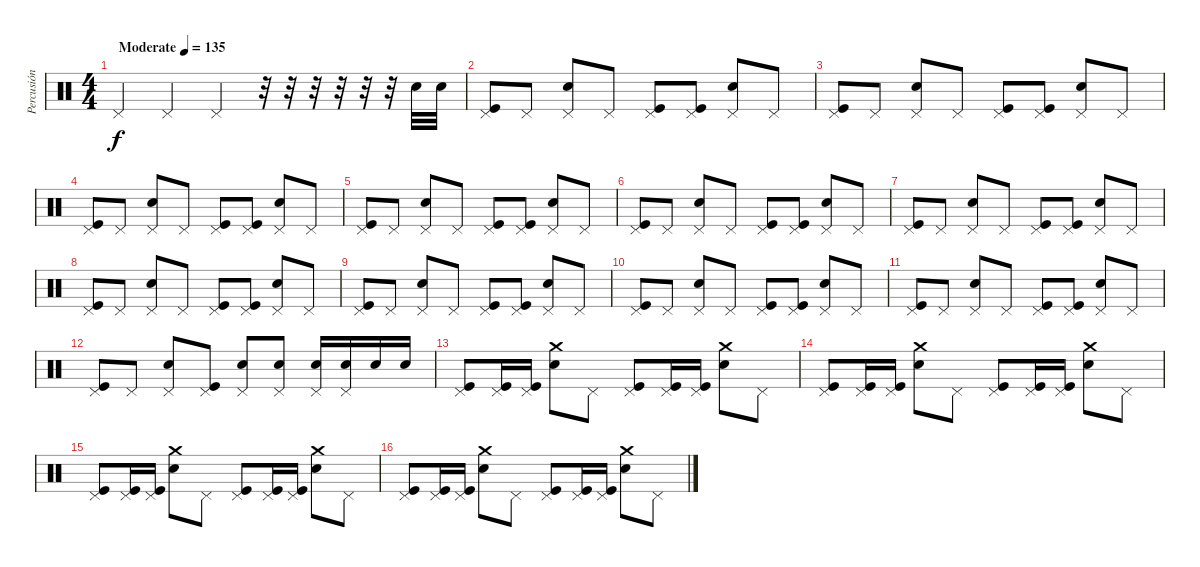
\track ("Percusión" "Percusión") {instrument percussion}
\staff {score}
\articulation defaults
\ts (4 4)
\tempo (135 "Moderate")
\clef neutral
\ks c "Pedal Hi-Hat (hit)".4{dy f} "Pedal Hi-Hat (hit)".4 "Pedal Hi-Hat (hit)".4
r.32 r.32 r.32 r.32 r.32 r.32 "Electric Snare (hit)".32 "Electric Snare (hit)".32 |
("Pedal Hi-Hat (hit)" "Kick (hit)").8 "Pedal Hi-Hat (hit)".8 ("Pedal Hi-Hat (hit)" "Electric Snare (hit)").8 "Pedal Hi-Hat (hit)".8 ("Pedal Hi-Hat (hit)" "Kick (hit)").8 ("Pedal Hi-Hat (hit)" "Kick (hit)").8 ("Pedal Hi-Hat (hit)" "Electric Snare (hit)").8 "Pedal Hi-Hat (hit)".8 |
("Pedal Hi-Hat (hit)" "Kick (hit)").8 "Pedal Hi-Hat (hit)".8 ("Pedal Hi-Hat (hit)" "Electric Snare (hit)").8 "Pedal Hi-Hat (hit)".8 ("Pedal Hi-Hat (hit)" "Kick (hit)").8 ("Pedal Hi-Hat (hit)" "Kick (hit)").8 ("Pedal Hi-Hat (hit)" "Electric Snare (hit)").8 "Pedal Hi-Hat (hit)".8 |
("Pedal Hi-Hat (hit)" "Kick (hit)").8 "Pedal Hi-Hat (hit)".8 ("Pedal Hi-Hat (hit)" "Electric Snare (hit)").8 "Pedal Hi-Hat (hit)".8 ("Pedal Hi-Hat (hit)" "Kick (hit)").8 ("Pedal Hi-Hat (hit)" "Kick (hit)").8 ("Pedal Hi-Hat (hit)" "Electric Snare (hit)").8 "Pedal Hi-Hat (hit)".8 |
("Pedal Hi-Hat (hit)" "Kick (hit)").8 "Pedal Hi-Hat (hit)".8 ("Pedal Hi-Hat (hit)" "Electric Snare (hit)").8 "Pedal Hi-Hat (hit)".8 ("Pedal Hi-Hat (hit)" "Kick (hit)").8 ("Pedal Hi-Hat (hit)" "Kick (hit)").8 ("Pedal Hi-Hat (hit)" "Electric Snare (hit)").8 "Pedal Hi-Hat (hit)".8 |
("Pedal Hi-Hat (hit)" "Kick (hit)").8 "Pedal Hi-Hat (hit)".8 ("Pedal Hi-Hat (hit)" "Electric Snare (hit)").8 "Pedal Hi-Hat (hit)".8 ("Pedal Hi-Hat (hit)" "Kick (hit)").8 ("Pedal Hi-Hat (hit)" "Kick (hit)").8 ("Pedal Hi-Hat (hit)" "Electric Snare (hit)").8 "Pedal Hi-Hat (hit)".8 |
("Pedal Hi-Hat (hit)" "Kick (hit)").8 "Pedal Hi-Hat (hit)".8 ("Pedal Hi-Hat (hit)" "Electric Snare (hit)").8 "Pedal Hi-Hat (hit)".8 ("Pedal Hi-Hat (hit)" "Kick (hit)").8 ("Pedal Hi-Hat (hit)" "Kick (hit)").8 ("Pedal Hi-Hat (hit)" "Electric Snare (hit)").8 "Pedal Hi-Hat (hit)".8 |
("Pedal Hi-Hat (hit)" "Kick (hit)").8 "Pedal Hi-Hat (hit)".8 ("Pedal Hi-Hat (hit)" "Electric Snare (hit)").8 "Pedal Hi-Hat (hit)".8 ("Pedal Hi-Hat (hit)" "Kick (hit)").8 ("Pedal Hi-Hat (hit)" "Kick (hit)").8 ("Pedal Hi-Hat (hit)" "Electric Snare (hit)").8 "Pedal Hi-Hat (hit)".8 |
("Pedal Hi-Hat (hit)" "Kick (hit)").8 "Pedal Hi-Hat (hit)".8 ("Pedal Hi-Hat (hit)" "Electric Snare (hit)").8 "Pedal Hi-Hat (hit)".8 ("Pedal Hi-Hat (hit)" "Kick (hit)").8 ("Pedal Hi-Hat (hit)" "Kick (hit)").8 ("Pedal Hi-Hat (hit)" "Electric Snare (hit)").8 "Pedal Hi-Hat (hit)".8 |
("Pedal Hi-Hat (hit)" "Kick (hit)").8 "Pedal Hi-Hat (hit)".8 ("Pedal Hi-Hat (hit)" "Electric Snare (hit)").8 "Pedal Hi-Hat (hit)".8 ("Pedal Hi-Hat (hit)" "Kick (hit)").8 ("Pedal Hi-Hat (hit)" "Kick (hit)").8 ("Pedal Hi-Hat (hit)" "Electric Snare (hit)").8 "Pedal Hi-Hat (hit)".8 |
("Pedal Hi-Hat (hit)" "Kick (hit)").8 "Pedal Hi-Hat (hit)".8 ("Pedal Hi-Hat (hit)" "Electric Snare (hit)").8 "Pedal Hi-Hat (hit)".8 ("Pedal Hi-Hat (hit)" "Kick (hit)").8 ("Pedal Hi-Hat (hit)" "Kick (hit)").8 ("Pedal Hi-Hat (hit)" "Electric Snare (hit)").8 "Pedal Hi-Hat (hit)".8 |
("Pedal Hi-Hat (hit)" "Kick (hit)").8 "Pedal Hi-Hat (hit)".8 ("Pedal Hi-Hat (hit)" "Electric Snare (hit)").8 ("Pedal Hi-Hat (hit)" "Kick (hit)").8 ("Pedal Hi-Hat (hit)" "Electric Snare (hit)").8 ("Pedal Hi-Hat (hit)" "Electric Snare (hit)").8 ("Pedal Hi-Hat (hit)" "Electric Snare (hit)").16 ("Pedal Hi-Hat (hit)" "Electric Snare (hit)").16 "Electric Snare (hit)".16 "Electric Snare (hit)".16 |
("Pedal Hi-Hat (hit)" "Kick (hit)").8 ("Pedal Hi-Hat (hit)" "Kick (hit)").16 ("Pedal Hi-Hat (hit)" "Kick (hit)").16 ("Crash medium (hit)" "Electric Snare (hit)").8 "Pedal Hi-Hat (hit)".8 ("Pedal Hi-Hat (hit)" "Kick (hit)").8 ("Pedal Hi-Hat (hit)" "Kick (hit)").16 ("Pedal Hi-Hat (hit)" "Kick (hit)").16 ("Crash medium (hit)" "Electric Snare (hit)").8 "Pedal Hi-Hat (hit)".8 |
("Pedal Hi-Hat (hit)" "Kick (hit)").8 ("Pedal Hi-Hat (hit)" "Kick (hit)").16 ("Pedal Hi-Hat (hit)" "Kick (hit)").16 ("Crash medium (hit)" "Electric Snare (hit)").8 "Pedal Hi-Hat (hit)".8 ("Pedal Hi-Hat (hit)" "Kick (hit)").8 ("Pedal Hi-Hat (hit)" "Kick (hit)").16 ("Pedal Hi-Hat (hit)" "Kick (hit)").16 ("Crash medium (hit)" "Electric Snare (hit)").8 "Pedal Hi-Hat (hit)".8 |
("Pedal Hi-Hat (hit)" "Kick (hit)").8 ("Pedal Hi-Hat (hit)" "Kick (hit)").16 ("Pedal Hi-Hat (hit)" "Kick (hit)").16 ("Crash medium (hit)" "Electric Snare (hit)").8 "Pedal Hi-Hat (hit)".8 ("Pedal Hi-Hat (hit)" "Kick (hit)").8 ("Pedal Hi-Hat (hit)" "Kick (hit)").16 ("Pedal Hi-Hat (hit)" "Kick (hit)").16 ("Crash medium (hit)" "Electric Snare (hit)").8 "Pedal Hi-Hat (hit)".8 |
("Pedal Hi-Hat (hit)" "Kick (hit)").8 ("Pedal Hi-Hat (hit)" "Kick (hit)").16 ("Pedal Hi-Hat (hit)" "Kick (hit)").16 ("Crash medium (hit)" "Electric Snare (hit)").8 "Pedal Hi-Hat (hit)".8 ("Pedal Hi-Hat (hit)" "Kick (hit)").8 ("Pedal Hi-Hat (hit)" "Kick (hit)").16 ("Pedal Hi-Hat (hit)" "Kick (hit)").16 ("Crash medium (hit)" "Electric Snare (hit)").8 "Pedal Hi-Hat (hit)".8
